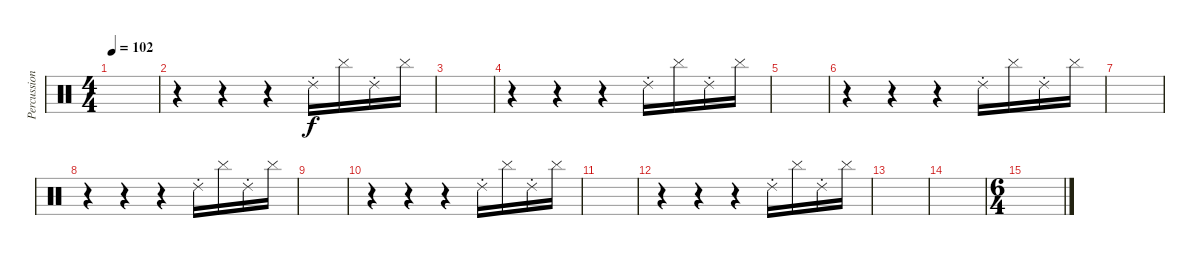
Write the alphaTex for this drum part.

\track ("Percussions 1" "Percussion") {instrument percussion}
\staff {score}
\articulation defaults
\ts (4 4)
\tempo 102
\clef neutral
\ks c
|
r.4 r.4 r.4 "Ride (choke) 2".16 "Cymbal (hit)".16 "Ride (choke) 2".16 "Cymbal (hit)".16 |
|
r.4 r.4 r.4 "Ride (choke) 2".16 "Cymbal (hit)".16 "Ride (choke) 2".16 "Cymbal (hit)".16 |
|
r.4 r.4 r.4 "Ride (choke) 2".16 "Cymbal (hit)".16 "Ride (choke) 2".16 "Cymbal (hit)".16 |
|
r.4 r.4 r.4 "Ride (choke) 2".16 "Cymbal (hit)".16 "Ride (choke) 2".16 "Cymbal (hit)".16 |
|
r.4 r.4 r.4 "Ride (choke) 2".16 "Cymbal (hit)".16 "Ride (choke) 2".16 "Cymbal (hit)".16 |
|
r.4 r.4 r.4 "Ride (choke) 2".16 "Cymbal (hit)".16 "Ride (choke) 2".16 "Cymbal (hit)".16 |
|
|
\ts (6 4)
